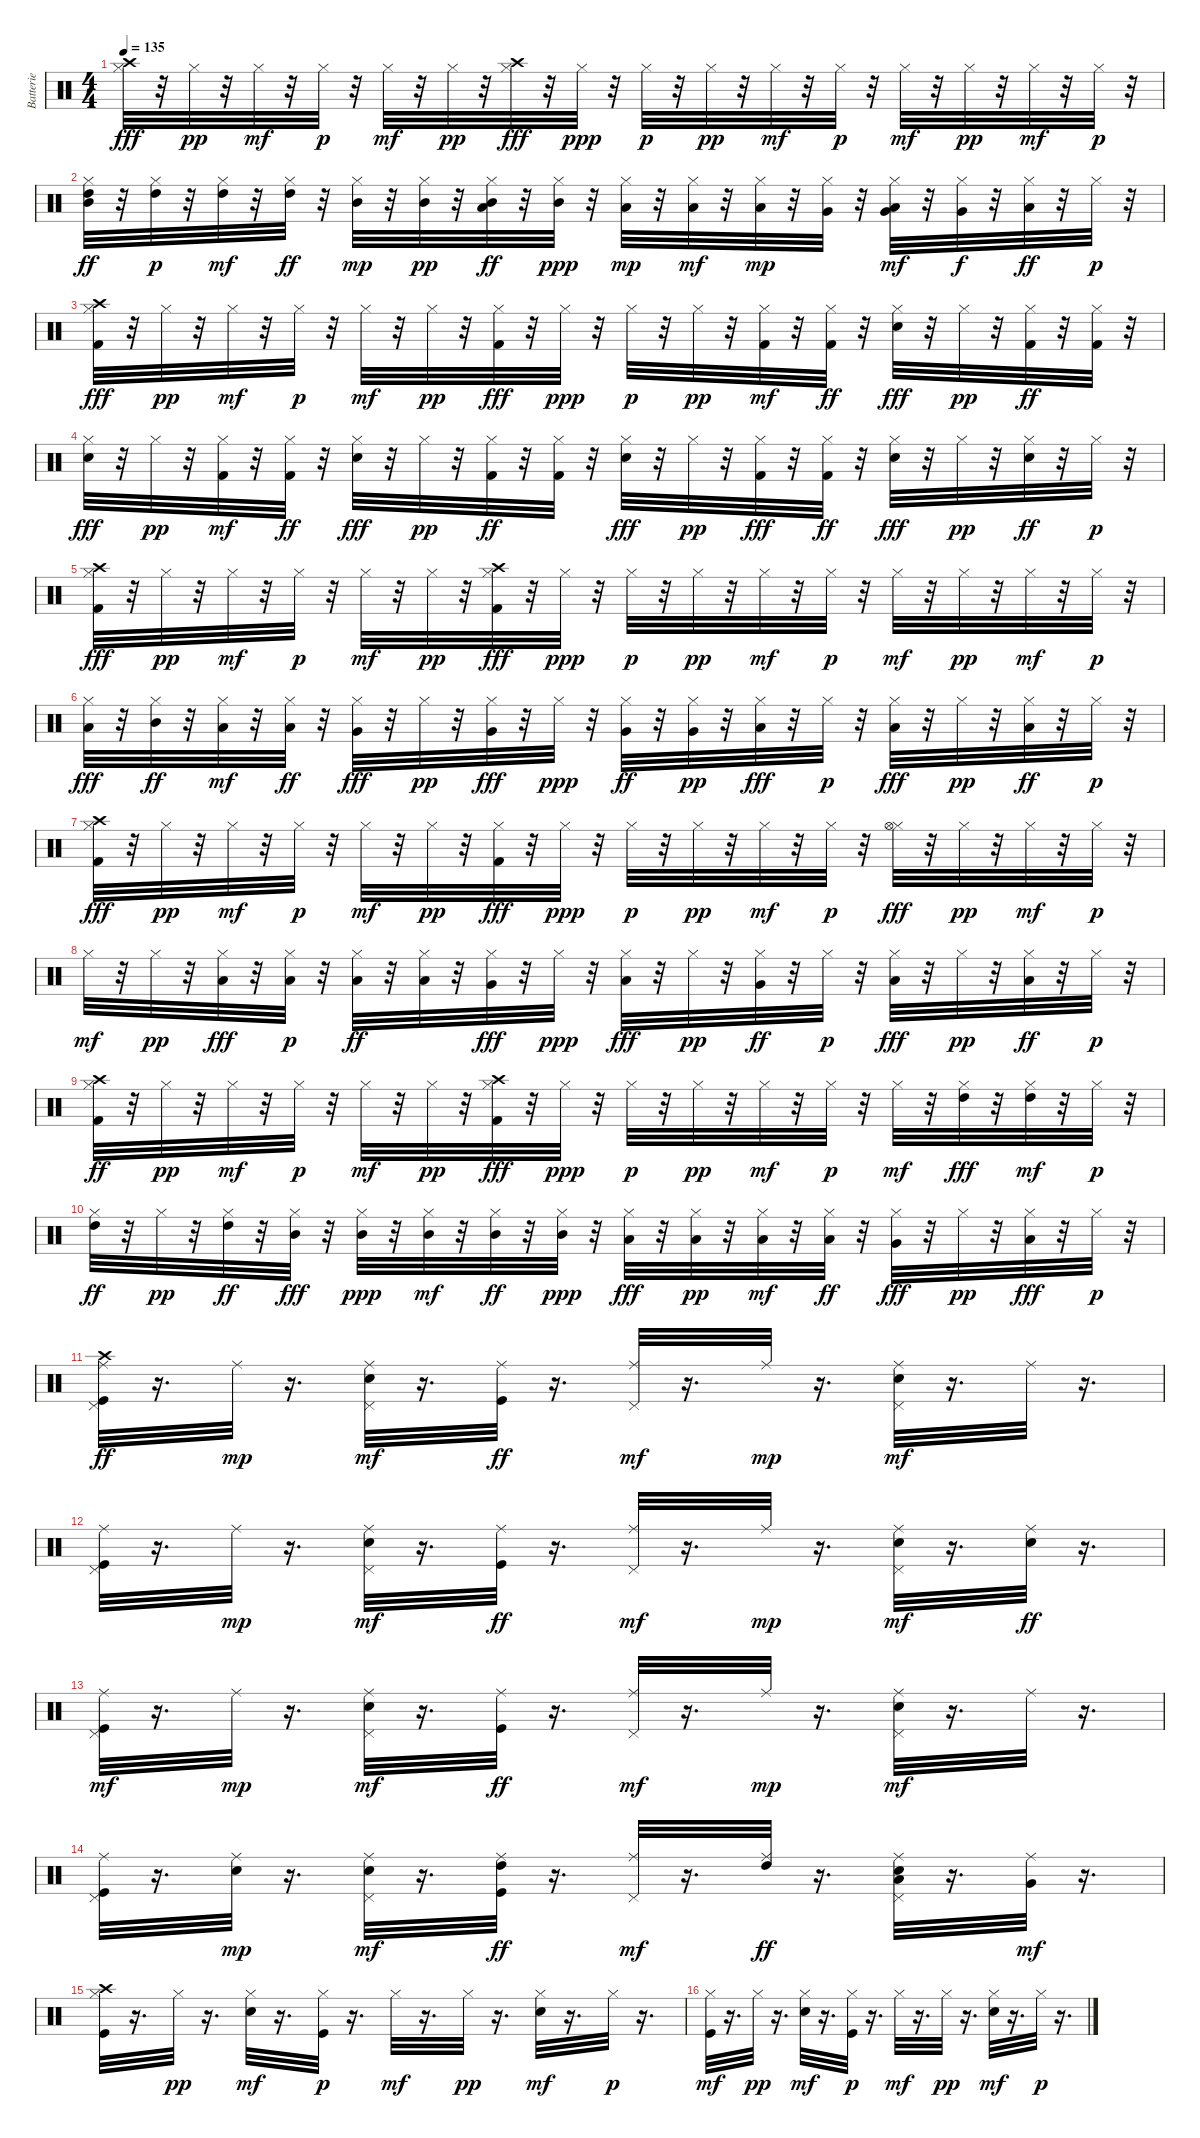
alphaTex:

\track ("Batterie" "Batterie") {instrument percussion}
\staff {score}
\articulation defaults
\ts (4 4)
\tempo 135
\clef neutral
\ks c
("Hi-Hat (closed)" "Crash high (hit)").32{dy fff} r.32 "Hi-Hat (closed)".32{dy pp} r.32 "Hi-Hat (closed)".32{dy mf} r.32 "Hi-Hat (closed)".32{dy p} r.32 "Hi-Hat (closed)".32{dy mf} r.32 "Hi-Hat (closed)".32{dy pp} r.32 ("Hi-Hat (closed)" "Crash high (hit)").32{dy fff} r.32 "Hi-Hat (closed)".32{dy ppp} r.32 "Hi-Hat (closed)".32{dy p} r.32 "Hi-Hat (closed)".32{dy pp} r.32 "Hi-Hat (closed)".32{dy mf} r.32 "Hi-Hat (closed)".32{dy p} r.32 "Hi-Hat (closed)".32{dy mf} r.32 "Hi-Hat (closed)".32{dy pp} r.32 "Hi-Hat (closed)".32{dy mf} r.32 "Hi-Hat (closed)".32{dy p} r.32 |
("Hi-Hat (closed)" "Mid Tom (hit)" "High Tom (hit)").32{dy ff} r.32 ("Hi-Hat (closed)" "High Tom (hit)").32{dy p} r.32 ("Hi-Hat (closed)" "High Tom (hit)").32{dy mf} r.32 ("Hi-Hat (closed)" "High Tom (hit)").32{dy ff} r.32 ("Hi-Hat (closed)" "Mid Tom (hit)").32{dy mp} r.32 ("Hi-Hat (closed)" "Mid Tom (hit)").32{dy pp} r.32 ("Hi-Hat (closed)" "Low Tom (hit)" "Mid Tom (hit)").32{dy ff} r.32 ("Hi-Hat (closed)" "Mid Tom (hit)").32{dy ppp} r.32 ("Hi-Hat (closed)" "Low Tom (hit)").32{dy mp} r.32 ("Hi-Hat (closed)" "Low Tom (hit)").32{dy mf} r.32 ("Hi-Hat (closed)" "Low Tom (hit)").32{dy mp} r.32 ("Hi-Hat (closed)" "Very Low Tom (hit)").32 r.32 ("Hi-Hat (closed)" "Low Floor Tom (hit)" "Very Low Tom (hit)").32{dy mf} r.32 ("Hi-Hat (closed)" "Very Low Tom (hit)").32{dy f} r.32 ("Hi-Hat (closed)" "Low Floor Tom (hit)").32{dy ff} r.32 "Hi-Hat (closed)".32{dy p} r.32 |
("Hi-Hat (closed)" "Kick (hit) 2" "Crash high (hit)").32{dy fff} r.32 "Hi-Hat (closed)".32{dy pp} r.32 "Hi-Hat (closed)".32{dy mf} r.32 "Hi-Hat (closed)".32{dy p} r.32 "Hi-Hat (closed)".32{dy mf} r.32 "Hi-Hat (closed)".32{dy pp} r.32 ("Hi-Hat (closed)" "Kick (hit) 2").32{dy fff} r.32 "Hi-Hat (closed)".32{dy ppp} r.32 "Hi-Hat (closed)".32{dy p} r.32 "Hi-Hat (closed)".32{dy pp} r.32 ("Hi-Hat (closed)" "Kick (hit) 2").32{dy mf} r.32 ("Hi-Hat (closed)" "Kick (hit) 2").32{dy ff} r.32 ("Hi-Hat (closed)" "Electric Snare (hit)").32{dy fff} r.32 "Hi-Hat (closed)".32{dy pp} r.32 ("Hi-Hat (closed)" "Kick (hit) 2").32{dy ff} r.32 ("Hi-Hat (closed)" "Kick (hit) 2").32 r.32 |
("Hi-Hat (closed)" "Electric Snare (hit)").32{dy fff} r.32 "Hi-Hat (closed)".32{dy pp} r.32 ("Hi-Hat (closed)" "Kick (hit) 2").32{dy mf} r.32 ("Hi-Hat (closed)" "Kick (hit) 2").32{dy ff} r.32 ("Hi-Hat (closed)" "Electric Snare (hit)").32{dy fff} r.32 "Hi-Hat (closed)".32{dy pp} r.32 ("Hi-Hat (closed)" "Kick (hit) 2").32{dy ff} r.32 ("Hi-Hat (closed)" "Kick (hit) 2").32 r.32 ("Hi-Hat (closed)" "Electric Snare (hit)").32{dy fff} r.32 "Hi-Hat (closed)".32{dy pp} r.32 ("Hi-Hat (closed)" "Kick (hit) 2").32{dy fff} r.32 ("Hi-Hat (closed)" "Kick (hit) 2").32{dy ff} r.32 ("Hi-Hat (closed)" "Electric Snare (hit)").32{dy fff} r.32 "Hi-Hat (closed)".32{dy pp} r.32 ("Hi-Hat (closed)" "Electric Snare (hit)").32{dy ff} r.32 "Hi-Hat (closed)".32{dy p} r.32 |
("Hi-Hat (closed)" "Kick (hit) 2" "Crash high (hit)").32{dy fff} r.32 "Hi-Hat (closed)".32{dy pp} r.32 "Hi-Hat (closed)".32{dy mf} r.32 "Hi-Hat (closed)".32{dy p} r.32 "Hi-Hat (closed)".32{dy mf} r.32 "Hi-Hat (closed)".32{dy pp} r.32 ("Hi-Hat (closed)" "Kick (hit) 2" "Crash high (hit)").32{dy fff} r.32 "Hi-Hat (closed)".32{dy ppp} r.32 "Hi-Hat (closed)".32{dy p} r.32 "Hi-Hat (closed)".32{dy pp} r.32 "Hi-Hat (closed)".32{dy mf} r.32 "Hi-Hat (closed)".32{dy p} r.32 "Hi-Hat (closed)".32{dy mf} r.32 "Hi-Hat (closed)".32{dy pp} r.32 "Hi-Hat (closed)".32{dy mf} r.32 "Hi-Hat (closed)".32{dy p} r.32 |
("Hi-Hat (closed)" "Low Tom (hit)").32{dy fff} r.32 ("Hi-Hat (closed)" "Mid Tom (hit)").32{dy ff} r.32 ("Hi-Hat (closed)" "Low Tom (hit)").32{dy mf} r.32 ("Hi-Hat (closed)" "Low Tom (hit)").32{dy ff} r.32 ("Hi-Hat (closed)" "Very Low Tom (hit)").32{dy fff} r.32 "Hi-Hat (closed)".32{dy pp} r.32 ("Hi-Hat (closed)" "Very Low Tom (hit)").32{dy fff} r.32 "Hi-Hat (closed)".32{dy ppp} r.32 ("Hi-Hat (closed)" "Very Low Tom (hit)").32{dy ff} r.32 ("Hi-Hat (closed)" "Very Low Tom (hit)").32{dy pp} r.32 ("Hi-Hat (closed)" "Low Floor Tom (hit)").32{dy fff} r.32 "Hi-Hat (closed)".32{dy p} r.32 ("Hi-Hat (closed)" "Low Floor Tom (hit)").32{dy fff} r.32 "Hi-Hat (closed)".32{dy pp} r.32 ("Hi-Hat (closed)" "Low Floor Tom (hit)").32{dy ff} r.32 "Hi-Hat (closed)".32{dy p} r.32 |
("Hi-Hat (closed)" "Kick (hit) 2" "Crash high (hit)").32{dy fff} r.32 "Hi-Hat (closed)".32{dy pp} r.32 "Hi-Hat (closed)".32{dy mf} r.32 "Hi-Hat (closed)".32{dy p} r.32 "Hi-Hat (closed)".32{dy mf} r.32 "Hi-Hat (closed)".32{dy pp} r.32 ("Hi-Hat (closed)" "Kick (hit) 2").32{dy fff} r.32 "Hi-Hat (closed)".32{dy ppp} r.32 "Hi-Hat (closed)".32{dy p} r.32 "Hi-Hat (closed)".32{dy pp} r.32 "Hi-Hat (closed)".32{dy mf} r.32 "Hi-Hat (closed)".32{dy p} r.32 ("Hi-Hat (closed)" "Hi-Hat (open)").32{dy fff} r.32 "Hi-Hat (closed)".32{dy pp} r.32 "Hi-Hat (closed)".32{dy mf} r.32 "Hi-Hat (closed)".32{dy p} r.32 |
"Hi-Hat (closed)".32{dy mf} r.32 "Hi-Hat (closed)".32{dy pp} r.32 ("Hi-Hat (closed)" "Low Tom (hit)").32{dy fff} r.32 ("Hi-Hat (closed)" "Low Tom (hit)").32{dy p} r.32 ("Hi-Hat (closed)" "Low Tom (hit)").32{dy ff} r.32 ("Hi-Hat (closed)" "Low Tom (hit)").32 r.32 ("Hi-Hat (closed)" "Very Low Tom (hit)").32{dy fff} r.32 "Hi-Hat (closed)".32{dy ppp} r.32 ("Hi-Hat (closed)" "Low Floor Tom (hit)").32{dy fff} r.32 "Hi-Hat (closed)".32{dy pp} r.32 ("Hi-Hat (closed)" "Very Low Tom (hit)").32{dy ff} r.32 "Hi-Hat (closed)".32{dy p} r.32 ("Hi-Hat (closed)" "Low Floor Tom (hit)").32{dy fff} r.32 "Hi-Hat (closed)".32{dy pp} r.32 ("Hi-Hat (closed)" "Low Floor Tom (hit)").32{dy ff} r.32 "Hi-Hat (closed)".32{dy p} r.32 |
("Hi-Hat (closed)" "Kick (hit) 2" "Crash high (hit)").32{dy ff} r.32 "Hi-Hat (closed)".32{dy pp} r.32 "Hi-Hat (closed)".32{dy mf} r.32 "Hi-Hat (closed)".32{dy p} r.32 "Hi-Hat (closed)".32{dy mf} r.32 "Hi-Hat (closed)".32{dy pp} r.32 ("Hi-Hat (closed)" "Crash high (hit)" "Kick (hit) 2").32{dy fff} r.32 "Hi-Hat (closed)".32{dy ppp} r.32 "Hi-Hat (closed)".32{dy p} r.32 "Hi-Hat (closed)".32{dy pp} r.32 "Hi-Hat (closed)".32{dy mf} r.32 "Hi-Hat (closed)".32{dy p} r.32 "Hi-Hat (closed)".32{dy mf} r.32 ("Hi-Hat (closed)" "High Tom (hit)").32{dy fff} r.32 ("Hi-Hat (closed)" "High Tom (hit)").32{dy mf} r.32 "Hi-Hat (closed)".32{dy p} r.32 |
("Hi-Hat (closed)" "High Tom (hit)").32{dy ff} r.32 "Hi-Hat (closed)".32{dy pp} r.32 ("Hi-Hat (closed)" "High Tom (hit)").32{dy ff} r.32 ("Hi-Hat (closed)" "Mid Tom (hit)").32{dy fff} r.32 ("Hi-Hat (closed)" "Mid Tom (hit)").32{dy ppp} r.32 ("Hi-Hat (closed)" "Mid Tom (hit)").32{dy mf} r.32 ("Hi-Hat (closed)" "Mid Tom (hit)").32{dy ff} r.32 ("Hi-Hat (closed)" "Mid Tom (hit)").32{dy ppp} r.32 ("Hi-Hat (closed)" "Low Tom (hit)").32{dy fff} r.32 ("Hi-Hat (closed)" "Low Tom (hit)").32{dy pp} r.32 ("Hi-Hat (closed)" "Low Tom (hit)").32{dy mf} r.32 ("Hi-Hat (closed)" "Low Tom (hit)").32{dy ff} r.32 ("Hi-Hat (closed)" "Very Low Tom (hit)").32{dy fff} r.32 "Hi-Hat (closed)".32{dy pp} r.32 ("Hi-Hat (closed)" "Low Floor Tom (hit)").32{dy fff} r.32 "Hi-Hat (closed)".32{dy p} r.32 |
("Kick (hit)" "Pedal Hi-Hat (hit)" "Ride (middle)" "Crash high (hit)").32{dy ff} r.16{d} "Ride (middle)".32{dy mp} r.16{d} ("Electric Snare (hit)" "Pedal Hi-Hat (hit)" "Ride (middle)").32{dy mf} r.16{d} ("Kick (hit)" "Ride (middle)").32{dy ff} r.16{d} ("Pedal Hi-Hat (hit)" "Ride (middle)").32{dy mf} r.16{d} "Ride (middle)".32{dy mp} r.16{d} ("Electric Snare (hit)" "Pedal Hi-Hat (hit)" "Ride (middle)").32{dy mf} r.16{d} "Ride (middle)".32 r.16{d} |
("Kick (hit)" "Pedal Hi-Hat (hit)" "Ride (middle)").32 r.16{d} "Ride (middle)".32{dy mp} r.16{d} ("Electric Snare (hit)" "Pedal Hi-Hat (hit)" "Ride (middle)").32{dy mf} r.16{d} ("Kick (hit)" "Ride (middle)").32{dy ff} r.16{d} ("Pedal Hi-Hat (hit)" "Ride (middle)").32{dy mf} r.16{d} "Ride (middle)".32{dy mp} r.16{d} ("Electric Snare (hit)" "Pedal Hi-Hat (hit)" "Ride (middle)").32{dy mf} r.16{d} ("Ride (middle)" "Electric Snare (hit)").32{dy ff} r.16{d} |
("Kick (hit)" "Pedal Hi-Hat (hit)" "Ride (middle)").32{dy mf} r.16{d} "Ride (middle)".32{dy mp} r.16{d} ("Electric Snare (hit)" "Pedal Hi-Hat (hit)" "Ride (middle)").32{dy mf} r.16{d} ("Kick (hit)" "Ride (middle)").32{dy ff} r.16{d} ("Pedal Hi-Hat (hit)" "Ride (middle)").32{dy mf} r.16{d} "Ride (middle)".32{dy mp} r.16{d} ("Electric Snare (hit)" "Pedal Hi-Hat (hit)" "Ride (middle)").32{dy mf} r.16{d} "Ride (middle)".32 r.16{d} |
("Kick (hit)" "Pedal Hi-Hat (hit)" "Ride (middle)").32 r.16{d} ("Ride (middle)" "Electric Snare (hit)").32{dy mp} r.16{d} ("Electric Snare (hit)" "Pedal Hi-Hat (hit)" "Ride (middle)").32{dy mf} r.16{d} ("Kick (hit)" "Ride (middle)" "High Tom (hit)").32{dy ff} r.16{d} ("Pedal Hi-Hat (hit)" "Ride (middle)").32{dy mf} r.16{d} ("Ride (middle)" "High Tom (hit)").32{dy ff} r.16{d} ("Electric Snare (hit)" "Pedal Hi-Hat (hit)" "Ride (middle)" "Low Tom (hit)").32 r.16{d} ("Ride (middle)" "Very Low Tom (hit)").32{dy mf} r.16{d} |
("Kick (hit)" "Hi-Hat (closed)" "Crash high (hit)").32 r.16{d} "Hi-Hat (closed)".32{dy pp} r.16{d} ("Electric Snare (hit)" "Hi-Hat (closed)").32{dy mf} r.16{d} ("Kick (hit)" "Hi-Hat (closed)").32{dy p} r.16{d} "Hi-Hat (closed)".32{dy mf} r.16{d} "Hi-Hat (closed)".32{dy pp} r.16{d} ("Electric Snare (hit)" "Hi-Hat (closed)").32{dy mf} r.16{d} "Hi-Hat (closed)".32{dy p} r.16{d} |
("Kick (hit)" "Hi-Hat (closed)").32{dy mf} r.16{d} "Hi-Hat (closed)".32{dy pp} r.16{d} ("Electric Snare (hit)" "Hi-Hat (closed)").32{dy mf} r.16{d} ("Kick (hit)" "Hi-Hat (closed)").32{dy p} r.16{d} "Hi-Hat (closed)".32{dy mf} r.16{d} "Hi-Hat (closed)".32{dy pp} r.16{d} ("Electric Snare (hit)" "Hi-Hat (closed)").32{dy mf} r.16{d} "Hi-Hat (closed)".32{dy p} r.16{d}
